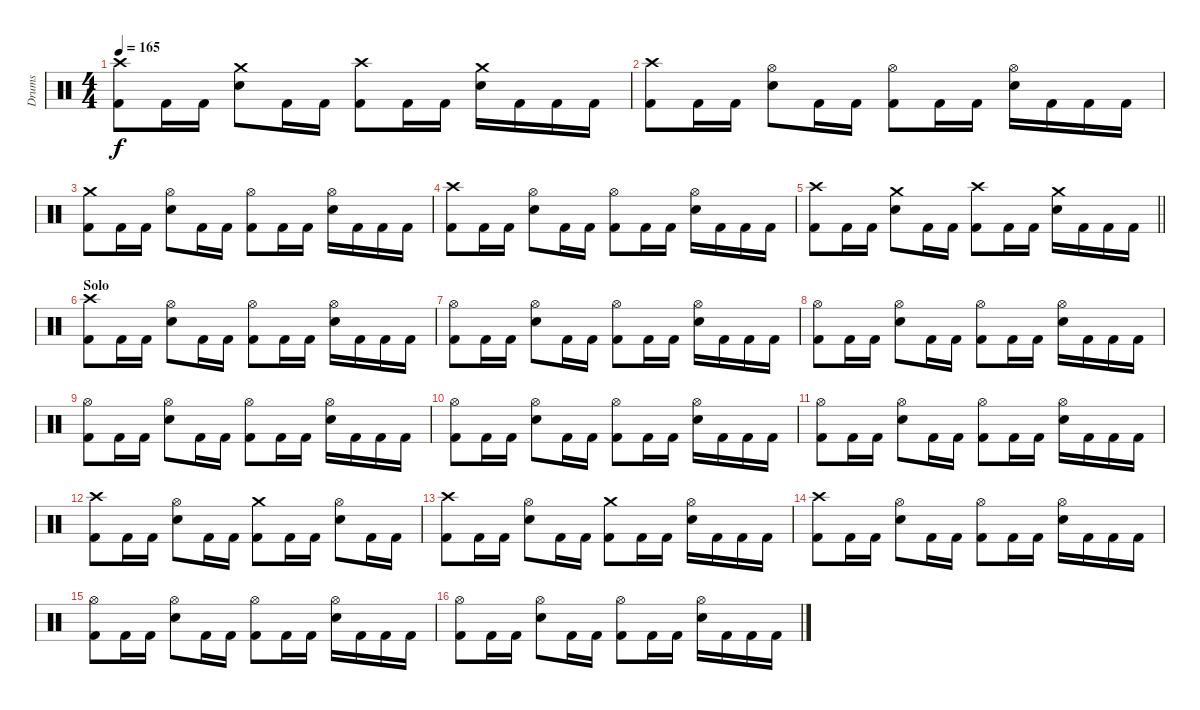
\track ("Drums" "Drums") {instrument percussion}
\staff {score}
\articulation defaults
\ts (4 4)
\tempo 165
\clef neutral
\ks c
("Crash high (hit)" "Kick (hit) 2").8{dy f} "Kick (hit) 2".16 "Kick (hit) 2".16 ("Crash medium (hit)" "Snare (hit) 2").8 "Kick (hit) 2".16 "Kick (hit) 2".16 ("Crash high (hit)" "Kick (hit) 2").8 "Kick (hit) 2".16 "Kick (hit) 2".16 ("Crash medium (hit)" "Snare (hit) 2").16 "Kick (hit) 2".16 "Kick (hit) 2".16 "Kick (hit) 2".16 |
("Crash high (hit)" "Kick (hit) 2").8 "Kick (hit) 2".16 "Kick (hit) 2".16 ("Hi-Hat (open)" "Snare (hit) 2").8 "Kick (hit) 2".16 "Kick (hit) 2".16 ("Hi-Hat (open)" "Kick (hit) 2").8 "Kick (hit) 2".16 "Kick (hit) 2".16 ("Hi-Hat (open)" "Snare (hit) 2").16 "Kick (hit) 2".16 "Kick (hit) 2".16 "Kick (hit) 2".16 |
("Crash medium (hit)" "Kick (hit) 2").8 "Kick (hit) 2".16 "Kick (hit) 2".16 ("Hi-Hat (open)" "Snare (hit) 2").8 "Kick (hit) 2".16 "Kick (hit) 2".16 ("Hi-Hat (open)" "Kick (hit) 2").8 "Kick (hit) 2".16 "Kick (hit) 2".16 ("Hi-Hat (open)" "Snare (hit) 2").16 "Kick (hit) 2".16 "Kick (hit) 2".16 "Kick (hit) 2".16 |
("Crash high (hit)" "Kick (hit) 2").8 "Kick (hit) 2".16 "Kick (hit) 2".16 ("Hi-Hat (open)" "Snare (hit) 2").8 "Kick (hit) 2".16 "Kick (hit) 2".16 ("Hi-Hat (open)" "Kick (hit) 2").8 "Kick (hit) 2".16 "Kick (hit) 2".16 ("Hi-Hat (open)" "Snare (hit) 2").16 "Kick (hit) 2".16 "Kick (hit) 2".16 "Kick (hit) 2".16 |
\barLineRight lightlight
("Crash high (hit)" "Kick (hit) 2").8 "Kick (hit) 2".16 "Kick (hit) 2".16 ("Crash medium (hit)" "Snare (hit) 2").8 "Kick (hit) 2".16 "Kick (hit) 2".16 ("Crash high (hit)" "Kick (hit) 2").8 "Kick (hit) 2".16 "Kick (hit) 2".16 ("Crash medium (hit)" "Snare (hit) 2").16 "Kick (hit) 2".16 "Kick (hit) 2".16 "Kick (hit) 2".16 |
\section ("" "Solo")
("Crash high (hit)" "Kick (hit) 2").8 "Kick (hit) 2".16 "Kick (hit) 2".16 ("Hi-Hat (open)" "Snare (hit) 2").8 "Kick (hit) 2".16 "Kick (hit) 2".16 ("Hi-Hat (open)" "Kick (hit) 2").8 "Kick (hit) 2".16 "Kick (hit) 2".16 ("Hi-Hat (open)" "Snare (hit) 2").16 "Kick (hit) 2".16 "Kick (hit) 2".16 "Kick (hit) 2".16 |
("Hi-Hat (open)" "Kick (hit) 2").8 "Kick (hit) 2".16 "Kick (hit) 2".16 ("Hi-Hat (open)" "Snare (hit) 2").8 "Kick (hit) 2".16 "Kick (hit) 2".16 ("Hi-Hat (open)" "Kick (hit) 2").8 "Kick (hit) 2".16 "Kick (hit) 2".16 ("Hi-Hat (open)" "Snare (hit) 2").16 "Kick (hit) 2".16 "Kick (hit) 2".16 "Kick (hit) 2".16 |
("Hi-Hat (open)" "Kick (hit) 2").8 "Kick (hit) 2".16 "Kick (hit) 2".16 ("Hi-Hat (open)" "Snare (hit) 2").8 "Kick (hit) 2".16 "Kick (hit) 2".16 ("Hi-Hat (open)" "Kick (hit) 2").8 "Kick (hit) 2".16 "Kick (hit) 2".16 ("Hi-Hat (open)" "Snare (hit) 2").16 "Kick (hit) 2".16 "Kick (hit) 2".16 "Kick (hit) 2".16 |
("Hi-Hat (open)" "Kick (hit) 2").8 "Kick (hit) 2".16 "Kick (hit) 2".16 ("Hi-Hat (open)" "Snare (hit) 2").8 "Kick (hit) 2".16 "Kick (hit) 2".16 ("Hi-Hat (open)" "Kick (hit) 2").8 "Kick (hit) 2".16 "Kick (hit) 2".16 ("Hi-Hat (open)" "Snare (hit) 2").16 "Kick (hit) 2".16 "Kick (hit) 2".16 "Kick (hit) 2".16 |
("Hi-Hat (open)" "Kick (hit) 2").8 "Kick (hit) 2".16 "Kick (hit) 2".16 ("Hi-Hat (open)" "Snare (hit) 2").8 "Kick (hit) 2".16 "Kick (hit) 2".16 ("Hi-Hat (open)" "Kick (hit) 2").8 "Kick (hit) 2".16 "Kick (hit) 2".16 ("Hi-Hat (open)" "Snare (hit) 2").16 "Kick (hit) 2".16 "Kick (hit) 2".16 "Kick (hit) 2".16 |
("Hi-Hat (open)" "Kick (hit) 2").8 "Kick (hit) 2".16 "Kick (hit) 2".16 ("Hi-Hat (open)" "Snare (hit) 2").8 "Kick (hit) 2".16 "Kick (hit) 2".16 ("Hi-Hat (open)" "Kick (hit) 2").8 "Kick (hit) 2".16 "Kick (hit) 2".16 ("Hi-Hat (open)" "Snare (hit) 2").16 "Kick (hit) 2".16 "Kick (hit) 2".16 "Kick (hit) 2".16 |
("Crash high (hit)" "Kick (hit) 2").8 "Kick (hit) 2".16 "Kick (hit) 2".16 ("Hi-Hat (open)" "Snare (hit) 2").8 "Kick (hit) 2".16 "Kick (hit) 2".16 ("Crash medium (hit)" "Kick (hit) 2").8 "Kick (hit) 2".16 "Kick (hit) 2".16 ("Hi-Hat (open)" "Snare (hit) 2").8 "Kick (hit) 2".16 "Kick (hit) 2".16 |
("Crash high (hit)" "Kick (hit) 2").8 "Kick (hit) 2".16 "Kick (hit) 2".16 ("Hi-Hat (open)" "Snare (hit) 2").8 "Kick (hit) 2".16 "Kick (hit) 2".16 ("Crash medium (hit)" "Kick (hit) 2").8 "Kick (hit) 2".16 "Kick (hit) 2".16 ("Hi-Hat (open)" "Snare (hit) 2").16 "Kick (hit) 2".16 "Kick (hit) 2".16 "Kick (hit) 2".16 |
("Crash high (hit)" "Kick (hit) 2").8 "Kick (hit) 2".16 "Kick (hit) 2".16 ("Hi-Hat (open)" "Snare (hit) 2").8 "Kick (hit) 2".16 "Kick (hit) 2".16 ("Hi-Hat (open)" "Kick (hit) 2").8 "Kick (hit) 2".16 "Kick (hit) 2".16 ("Hi-Hat (open)" "Snare (hit) 2").16 "Kick (hit) 2".16 "Kick (hit) 2".16 "Kick (hit) 2".16 |
("Hi-Hat (open)" "Kick (hit) 2").8 "Kick (hit) 2".16 "Kick (hit) 2".16 ("Hi-Hat (open)" "Snare (hit) 2").8 "Kick (hit) 2".16 "Kick (hit) 2".16 ("Hi-Hat (open)" "Kick (hit) 2").8 "Kick (hit) 2".16 "Kick (hit) 2".16 ("Hi-Hat (open)" "Snare (hit) 2").16 "Kick (hit) 2".16 "Kick (hit) 2".16 "Kick (hit) 2".16 |
("Hi-Hat (open)" "Kick (hit) 2").8 "Kick (hit) 2".16 "Kick (hit) 2".16 ("Hi-Hat (open)" "Snare (hit) 2").8 "Kick (hit) 2".16 "Kick (hit) 2".16 ("Hi-Hat (open)" "Kick (hit) 2").8 "Kick (hit) 2".16 "Kick (hit) 2".16 ("Hi-Hat (open)" "Snare (hit) 2").16 "Kick (hit) 2".16 "Kick (hit) 2".16 "Kick (hit) 2".16
